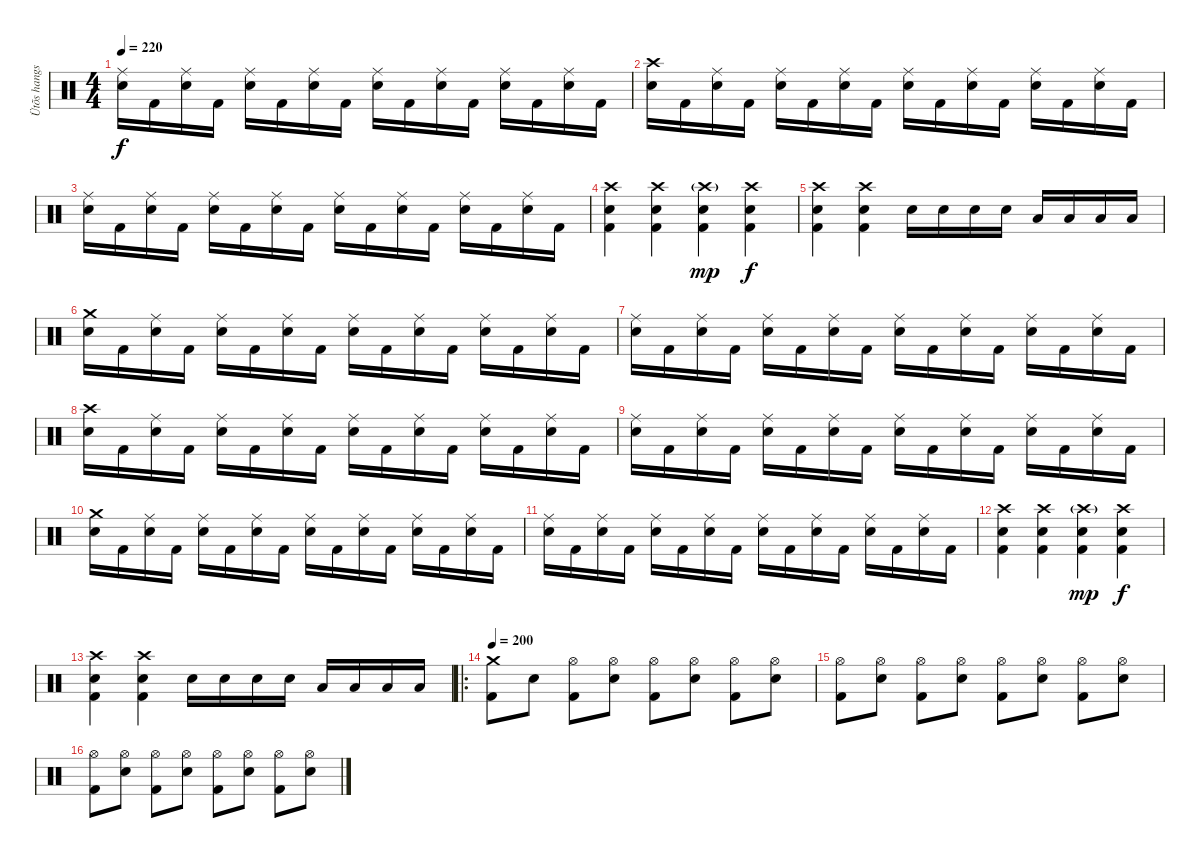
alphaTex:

\track ("Ütõs hangszer" "Ütõs hangs") {instrument percussion}
\staff {score}
\articulation defaults
\ts (4 4)
\tempo 220
\clef neutral
\ks c
("Ride (middle)" "Snare (hit) 2").16{dy f} "Kick (hit) 2".16 ("Ride (middle)" "Snare (hit) 2").16 "Kick (hit) 2".16 ("Ride (middle)" "Snare (hit) 2").16 "Kick (hit) 2".16 ("Ride (middle)" "Snare (hit) 2").16 "Kick (hit) 2".16 ("Ride (middle)" "Snare (hit) 2").16 "Kick (hit) 2".16 ("Ride (middle)" "Snare (hit) 2").16 "Kick (hit) 2".16 ("Ride (middle)" "Snare (hit) 2").16 "Kick (hit) 2".16 ("Ride (middle)" "Snare (hit) 2").16 "Kick (hit) 2".16 |
("Crash high (hit)" "Snare (hit) 2").16 "Kick (hit) 2".16 ("Ride (middle)" "Snare (hit) 2").16 "Kick (hit) 2".16 ("Ride (middle)" "Snare (hit) 2").16 "Kick (hit) 2".16 ("Ride (middle)" "Snare (hit) 2").16 "Kick (hit) 2".16 ("Ride (middle)" "Snare (hit) 2").16 "Kick (hit) 2".16 ("Ride (middle)" "Snare (hit) 2").16 "Kick (hit) 2".16 ("Ride (middle)" "Snare (hit) 2").16 "Kick (hit) 2".16 ("Ride (middle)" "Snare (hit) 2").16 "Kick (hit) 2".16 |
("Ride (middle)" "Snare (hit) 2").16 "Kick (hit) 2".16 ("Ride (middle)" "Snare (hit) 2").16 "Kick (hit) 2".16 ("Ride (middle)" "Snare (hit) 2").16 "Kick (hit) 2".16 ("Ride (middle)" "Snare (hit) 2").16 "Kick (hit) 2".16 ("Ride (middle)" "Snare (hit) 2").16 "Kick (hit) 2".16 ("Ride (middle)" "Snare (hit) 2").16 "Kick (hit) 2".16 ("Ride (middle)" "Snare (hit) 2").16 "Kick (hit) 2".16 ("Ride (middle)" "Snare (hit) 2").16 "Kick (hit) 2".16 |
("Crash high (hit)" "Snare (hit) 2" "Kick (hit) 2").4 ("Crash high (hit)" "Snare (hit) 2" "Kick (hit) 2").4 ("Crash high (hit)"{g} "Snare (hit) 2" "Kick (hit) 2").4{dy mp} ("Crash high (hit)" "Snare (hit) 2" "Kick (hit) 2").4{dy f} |
("Crash high (hit)" "Snare (hit) 2" "Kick (hit) 2").4 ("Crash high (hit)" "Snare (hit) 2" "Kick (hit) 2").4 "Snare (hit) 2".16 "Snare (hit) 2".16 "Snare (hit) 2".16 "Snare (hit) 2".16 "Low Tom (hit)".16 "Low Tom (hit)".16 "Low Tom (hit)".16 "Low Tom (hit)".16 |
("Crash medium (hit)" "Snare (hit) 2").16 "Kick (hit) 2".16 ("Ride (middle)" "Snare (hit) 2").16 "Kick (hit) 2".16 ("Ride (middle)" "Snare (hit) 2").16 "Kick (hit) 2".16 ("Ride (middle)" "Snare (hit) 2").16 "Kick (hit) 2".16 ("Ride (middle)" "Snare (hit) 2").16 "Kick (hit) 2".16 ("Ride (middle)" "Snare (hit) 2").16 "Kick (hit) 2".16 ("Ride (middle)" "Snare (hit) 2").16 "Kick (hit) 2".16 ("Ride (middle)" "Snare (hit) 2").16 "Kick (hit) 2".16 |
("Ride (middle)" "Snare (hit) 2").16 "Kick (hit) 2".16 ("Ride (middle)" "Snare (hit) 2").16 "Kick (hit) 2".16 ("Ride (middle)" "Snare (hit) 2").16 "Kick (hit) 2".16 ("Ride (middle)" "Snare (hit) 2").16 "Kick (hit) 2".16 ("Ride (middle)" "Snare (hit) 2").16 "Kick (hit) 2".16 ("Ride (middle)" "Snare (hit) 2").16 "Kick (hit) 2".16 ("Ride (middle)" "Snare (hit) 2").16 "Kick (hit) 2".16 ("Ride (middle)" "Snare (hit) 2").16 "Kick (hit) 2".16 |
("Crash high (hit)" "Snare (hit) 2").16 "Kick (hit) 2".16 ("Ride (middle)" "Snare (hit) 2").16 "Kick (hit) 2".16 ("Ride (middle)" "Snare (hit) 2").16 "Kick (hit) 2".16 ("Ride (middle)" "Snare (hit) 2").16 "Kick (hit) 2".16 ("Ride (middle)" "Snare (hit) 2").16 "Kick (hit) 2".16 ("Ride (middle)" "Snare (hit) 2").16 "Kick (hit) 2".16 ("Ride (middle)" "Snare (hit) 2").16 "Kick (hit) 2".16 ("Ride (middle)" "Snare (hit) 2").16 "Kick (hit) 2".16 |
("Ride (middle)" "Snare (hit) 2").16 "Kick (hit) 2".16 ("Ride (middle)" "Snare (hit) 2").16 "Kick (hit) 2".16 ("Ride (middle)" "Snare (hit) 2").16 "Kick (hit) 2".16 ("Ride (middle)" "Snare (hit) 2").16 "Kick (hit) 2".16 ("Ride (middle)" "Snare (hit) 2").16 "Kick (hit) 2".16 ("Ride (middle)" "Snare (hit) 2").16 "Kick (hit) 2".16 ("Ride (middle)" "Snare (hit) 2").16 "Kick (hit) 2".16 ("Ride (middle)" "Snare (hit) 2").16 "Kick (hit) 2".16 |
("Crash medium (hit)" "Snare (hit) 2").16 "Kick (hit) 2".16 ("Ride (middle)" "Snare (hit) 2").16 "Kick (hit) 2".16 ("Ride (middle)" "Snare (hit) 2").16 "Kick (hit) 2".16 ("Ride (middle)" "Snare (hit) 2").16 "Kick (hit) 2".16 ("Ride (middle)" "Snare (hit) 2").16 "Kick (hit) 2".16 ("Ride (middle)" "Snare (hit) 2").16 "Kick (hit) 2".16 ("Ride (middle)" "Snare (hit) 2").16 "Kick (hit) 2".16 ("Ride (middle)" "Snare (hit) 2").16 "Kick (hit) 2".16 |
("Ride (middle)" "Snare (hit) 2").16 "Kick (hit) 2".16 ("Ride (middle)" "Snare (hit) 2").16 "Kick (hit) 2".16 ("Ride (middle)" "Snare (hit) 2").16 "Kick (hit) 2".16 ("Ride (middle)" "Snare (hit) 2").16 "Kick (hit) 2".16 ("Ride (middle)" "Snare (hit) 2").16 "Kick (hit) 2".16 ("Ride (middle)" "Snare (hit) 2").16 "Kick (hit) 2".16 ("Ride (middle)" "Snare (hit) 2").16 "Kick (hit) 2".16 ("Ride (middle)" "Snare (hit) 2").16 "Kick (hit) 2".16 |
("Crash high (hit)" "Snare (hit) 2" "Kick (hit) 2").4 ("Crash high (hit)" "Snare (hit) 2" "Kick (hit) 2").4 ("Crash high (hit)"{g} "Snare (hit) 2" "Kick (hit) 2").4{dy mp} ("Crash high (hit)" "Snare (hit) 2" "Kick (hit) 2").4{dy f} |
("Crash high (hit)" "Snare (hit) 2" "Kick (hit) 2").4 ("Crash high (hit)" "Snare (hit) 2" "Kick (hit) 2").4 "Snare (hit) 2".16 "Snare (hit) 2".16 "Snare (hit) 2".16 "Snare (hit) 2".16 "Low Tom (hit)".16 "Low Tom (hit)".16 "Low Tom (hit)".16 "Low Tom (hit)".16 |
\ro
\tempo 200
("Crash medium (hit)" "Kick (hit) 2").8 "Snare (hit) 2".8 ("Hi-Hat (open)" "Kick (hit) 2").8 ("Hi-Hat (open)" "Snare (hit) 2").8 ("Hi-Hat (open)" "Kick (hit) 2").8 ("Hi-Hat (open)" "Snare (hit) 2").8 ("Hi-Hat (open)" "Kick (hit) 2").8 ("Hi-Hat (open)" "Snare (hit) 2").8 |
("Hi-Hat (open)" "Kick (hit) 2").8 ("Hi-Hat (open)" "Snare (hit) 2").8 ("Hi-Hat (open)" "Kick (hit) 2").8 ("Hi-Hat (open)" "Snare (hit) 2").8 ("Hi-Hat (open)" "Kick (hit) 2").8 ("Hi-Hat (open)" "Snare (hit) 2").8 ("Hi-Hat (open)" "Kick (hit) 2").8 ("Hi-Hat (open)" "Snare (hit) 2").8 |
("Hi-Hat (open)" "Kick (hit) 2").8 ("Hi-Hat (open)" "Snare (hit) 2").8 ("Hi-Hat (open)" "Kick (hit) 2").8 ("Hi-Hat (open)" "Snare (hit) 2").8 ("Hi-Hat (open)" "Kick (hit) 2").8 ("Hi-Hat (open)" "Snare (hit) 2").8 ("Hi-Hat (open)" "Kick (hit) 2").8 ("Hi-Hat (open)" "Snare (hit) 2").8
